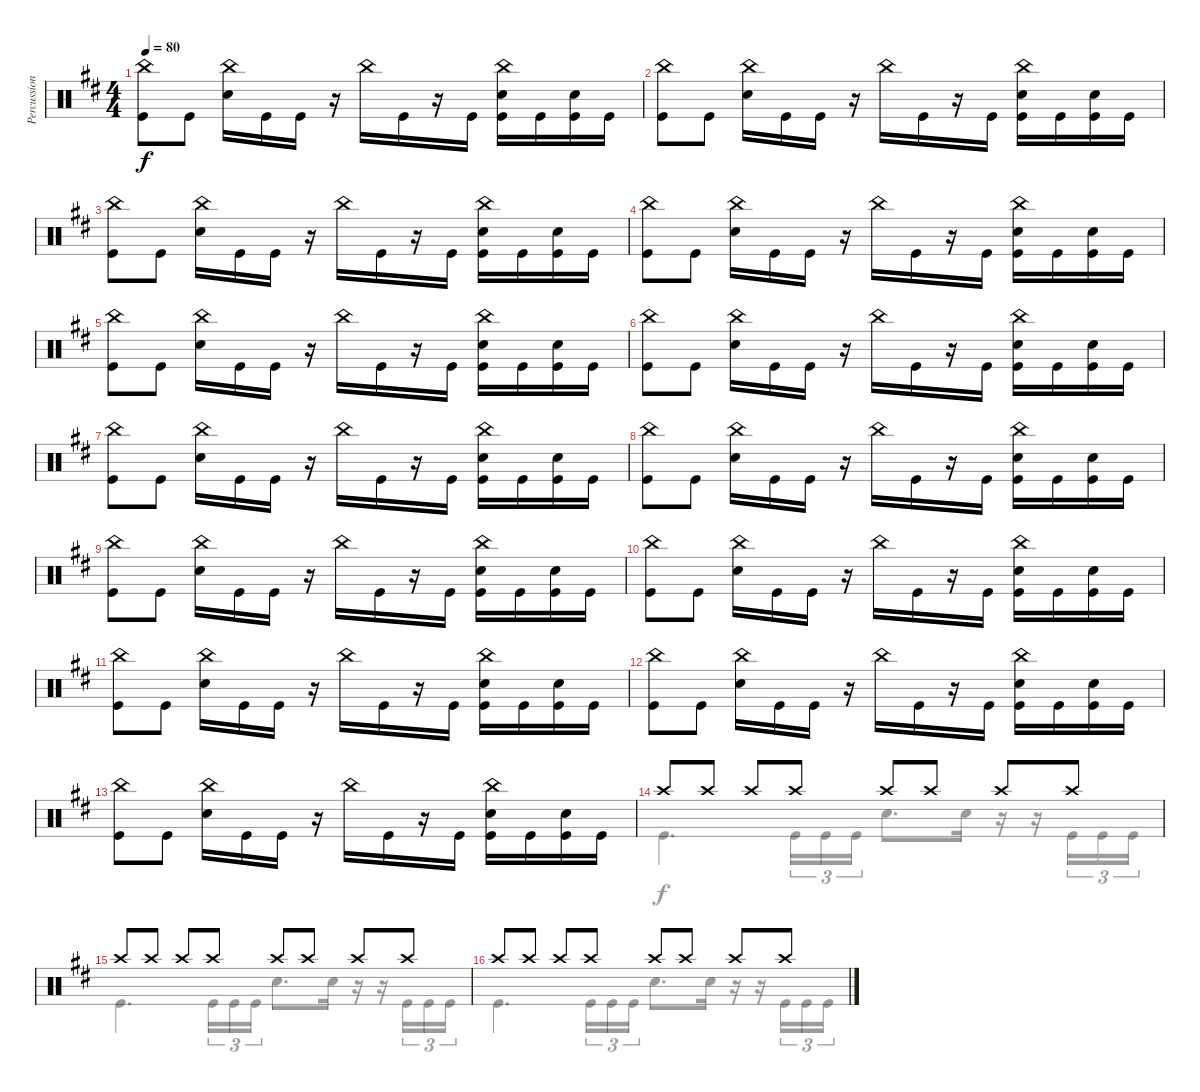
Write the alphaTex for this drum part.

\track ("Percussion" "Percussion") {instrument percussion}
\staff {score}
\articulation defaults
\voice
\ts (4 4)
\tempo 80
\clef neutral
\ks bminor
("China (hit)" "Kick (hit)").8{dy f} "Kick (hit)".8 ("China (hit)" "Snare (hit) 2").16 "Kick (hit)".16 "Kick (hit)".16 r.16 "China (hit)".16 "Kick (hit)".16 r.16 "Kick (hit)".16 ("China (hit)" "Kick (hit)" "Snare (hit) 2").16 "Kick (hit)".16 ("Kick (hit)" "Snare (hit) 2").16 "Kick (hit)".16 |
("China (hit)" "Kick (hit)").8 "Kick (hit)".8 ("China (hit)" "Snare (hit) 2").16 "Kick (hit)".16 "Kick (hit)".16 r.16 "China (hit)".16 "Kick (hit)".16 r.16 "Kick (hit)".16 ("China (hit)" "Kick (hit)" "Snare (hit) 2").16 "Kick (hit)".16 ("Kick (hit)" "Snare (hit) 2").16 "Kick (hit)".16 |
("China (hit)" "Kick (hit)").8 "Kick (hit)".8 ("China (hit)" "Snare (hit) 2").16 "Kick (hit)".16 "Kick (hit)".16 r.16 "China (hit)".16 "Kick (hit)".16 r.16 "Kick (hit)".16 ("China (hit)" "Kick (hit)" "Snare (hit) 2").16 "Kick (hit)".16 ("Kick (hit)" "Snare (hit) 2").16 "Kick (hit)".16 |
("China (hit)" "Kick (hit)").8 "Kick (hit)".8 ("China (hit)" "Snare (hit) 2").16 "Kick (hit)".16 "Kick (hit)".16 r.16 "China (hit)".16 "Kick (hit)".16 r.16 "Kick (hit)".16 ("China (hit)" "Kick (hit)" "Snare (hit) 2").16 "Kick (hit)".16 ("Kick (hit)" "Snare (hit) 2").16 "Kick (hit)".16 |
("China (hit)" "Kick (hit)").8 "Kick (hit)".8 ("China (hit)" "Snare (hit) 2").16 "Kick (hit)".16 "Kick (hit)".16 r.16 "China (hit)".16 "Kick (hit)".16 r.16 "Kick (hit)".16 ("China (hit)" "Kick (hit)" "Snare (hit) 2").16 "Kick (hit)".16 ("Kick (hit)" "Snare (hit) 2").16 "Kick (hit)".16 |
("China (hit)" "Kick (hit)").8 "Kick (hit)".8 ("China (hit)" "Snare (hit) 2").16 "Kick (hit)".16 "Kick (hit)".16 r.16 "China (hit)".16 "Kick (hit)".16 r.16 "Kick (hit)".16 ("China (hit)" "Kick (hit)" "Snare (hit) 2").16 "Kick (hit)".16 ("Kick (hit)" "Snare (hit) 2").16 "Kick (hit)".16 |
("China (hit)" "Kick (hit)").8 "Kick (hit)".8 ("China (hit)" "Snare (hit) 2").16 "Kick (hit)".16 "Kick (hit)".16 r.16 "China (hit)".16 "Kick (hit)".16 r.16 "Kick (hit)".16 ("China (hit)" "Kick (hit)" "Snare (hit) 2").16 "Kick (hit)".16 ("Kick (hit)" "Snare (hit) 2").16 "Kick (hit)".16 |
("China (hit)" "Kick (hit)").8 "Kick (hit)".8 ("China (hit)" "Snare (hit) 2").16 "Kick (hit)".16 "Kick (hit)".16 r.16 "China (hit)".16 "Kick (hit)".16 r.16 "Kick (hit)".16 ("China (hit)" "Kick (hit)" "Snare (hit) 2").16 "Kick (hit)".16 ("Kick (hit)" "Snare (hit) 2").16 "Kick (hit)".16 |
("China (hit)" "Kick (hit)").8 "Kick (hit)".8 ("China (hit)" "Snare (hit) 2").16 "Kick (hit)".16 "Kick (hit)".16 r.16 "China (hit)".16 "Kick (hit)".16 r.16 "Kick (hit)".16 ("China (hit)" "Kick (hit)" "Snare (hit) 2").16 "Kick (hit)".16 ("Kick (hit)" "Snare (hit) 2").16 "Kick (hit)".16 |
("China (hit)" "Kick (hit)").8 "Kick (hit)".8 ("China (hit)" "Snare (hit) 2").16 "Kick (hit)".16 "Kick (hit)".16 r.16 "China (hit)".16 "Kick (hit)".16 r.16 "Kick (hit)".16 ("China (hit)" "Kick (hit)" "Snare (hit) 2").16 "Kick (hit)".16 ("Kick (hit)" "Snare (hit) 2").16 "Kick (hit)".16 |
("China (hit)" "Kick (hit)").8 "Kick (hit)".8 ("China (hit)" "Snare (hit) 2").16 "Kick (hit)".16 "Kick (hit)".16 r.16 "China (hit)".16 "Kick (hit)".16 r.16 "Kick (hit)".16 ("China (hit)" "Kick (hit)" "Snare (hit) 2").16 "Kick (hit)".16 ("Kick (hit)" "Snare (hit) 2").16 "Kick (hit)".16 |
("China (hit)" "Kick (hit)").8 "Kick (hit)".8 ("China (hit)" "Snare (hit) 2").16 "Kick (hit)".16 "Kick (hit)".16 r.16 "China (hit)".16 "Kick (hit)".16 r.16 "Kick (hit)".16 ("China (hit)" "Kick (hit)" "Snare (hit) 2").16 "Kick (hit)".16 ("Kick (hit)" "Snare (hit) 2").16 "Kick (hit)".16 |
("China (hit)" "Kick (hit)").8 "Kick (hit)".8 ("China (hit)" "Snare (hit) 2").16 "Kick (hit)".16 "Kick (hit)".16 r.16 "China (hit)".16 "Kick (hit)".16 r.16 "Kick (hit)".16 ("China (hit)" "Kick (hit)" "Snare (hit) 2").16 "Kick (hit)".16 ("Kick (hit)" "Snare (hit) 2").16 "Kick (hit)".16 |
"Crash high (hit)".8 "Crash high (hit)".8 "Crash high (hit)".8 "Crash high (hit)".8 "Crash high (hit)".8 "Crash high (hit)".8 "Crash high (hit)".8 "Crash high (hit)".8 |
"Crash high (hit)".8 "Crash high (hit)".8 "Crash high (hit)".8 "Crash high (hit)".8 "Crash high (hit)".8 "Crash high (hit)".8 "Crash high (hit)".8 "Crash high (hit)".8 |
"Crash high (hit)".8 "Crash high (hit)".8 "Crash high (hit)".8 "Crash high (hit)".8 "Crash high (hit)".8 "Crash high (hit)".8 "Crash high (hit)".8 "Crash high (hit)".8
\voice
\clef neutral
\ottava regular
\simile none
\ks bminor
|
|
|
|
|
|
|
|
|
|
|
|
|
"Kick (hit)".4{d} "Kick (hit)".16{tu (3 2)} "Kick (hit)".16{tu (3 2)} "Kick (hit)".16{tu (3 2)} "Snare (hit) 2".8{d} "Snare (hit) 2".16 r.16 r.16 "Kick (hit)".16{tu (3 2)} "Kick (hit)".16{tu (3 2)} "Kick (hit)".16{tu (3 2)} |
"Kick (hit)".4{d} "Kick (hit)".16{tu (3 2)} "Kick (hit)".16{tu (3 2)} "Kick (hit)".16{tu (3 2)} "Snare (hit) 2".8{d} "Snare (hit) 2".16 r.16 r.16 "Kick (hit)".16{tu (3 2)} "Kick (hit)".16{tu (3 2)} "Kick (hit)".16{tu (3 2)} |
"Kick (hit)".4{d} "Kick (hit)".16{tu (3 2)} "Kick (hit)".16{tu (3 2)} "Kick (hit)".16{tu (3 2)} "Snare (hit) 2".8{d} "Snare (hit) 2".16 r.16 r.16 "Kick (hit)".16{tu (3 2)} "Kick (hit)".16{tu (3 2)} "Kick (hit)".16{tu (3 2)}
